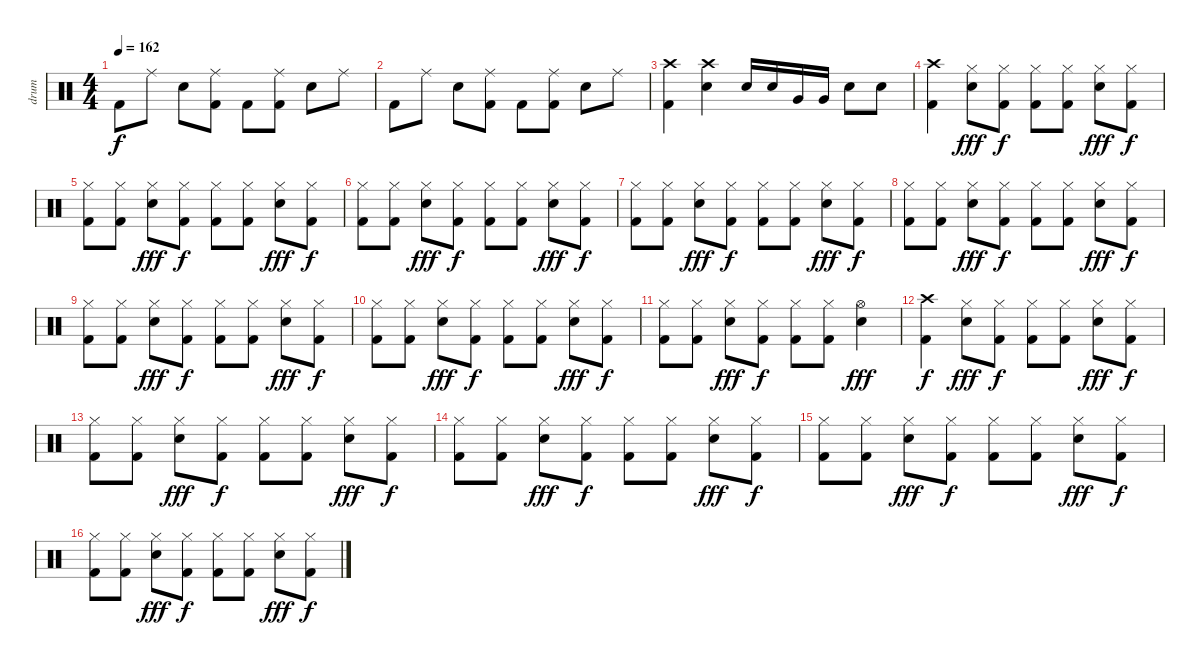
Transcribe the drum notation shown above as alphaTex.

\track ("drum" "drum") {instrument percussion}
\staff {score}
\articulation defaults
\ts (4 4)
\tempo 162
\clef neutral
\ks c "Kick (hit) 2".8{dy f} "Ride (middle)".8 "Electric Snare (hit)".8
("Ride (middle)" "Kick (hit) 2").8 "Kick (hit) 2".8 ("Ride (middle)" "Kick (hit) 2").8 "Electric Snare (hit)".8 "Ride (middle)".8 |
"Kick (hit) 2".8 "Ride (middle)".8 "Electric Snare (hit)".8 ("Ride (middle)" "Kick (hit) 2").8 "Kick (hit) 2".8 ("Ride (middle)" "Kick (hit) 2").8 "Electric Snare (hit)".8 "Ride (middle)".8 |
("Crash high (hit)" "Kick (hit) 2").4 ("Crash high (hit)" "Electric Snare (hit)").4 "Electric Snare (hit)".16 "Electric Snare (hit)".16 "Very Low Tom (hit)".16 "Very Low Tom (hit)".16 "Electric Snare (hit)".8 "Electric Snare (hit)".8 |
("Crash high (hit)" "Kick (hit) 2").4 ("Hi-Hat (closed)" "Electric Snare (hit)").8{dy fff} ("Hi-Hat (closed)" "Kick (hit) 2").8{dy f} ("Hi-Hat (closed)" "Kick (hit) 2").8 ("Hi-Hat (closed)" "Kick (hit) 2").8 ("Hi-Hat (closed)" "Electric Snare (hit)").8{dy fff} ("Hi-Hat (closed)" "Kick (hit) 2").8{dy f} |
("Hi-Hat (closed)" "Kick (hit) 2").8 ("Hi-Hat (closed)" "Kick (hit) 2").8 ("Hi-Hat (closed)" "Electric Snare (hit)").8{dy fff} ("Hi-Hat (closed)" "Kick (hit) 2").8{dy f} ("Hi-Hat (closed)" "Kick (hit) 2").8 ("Hi-Hat (closed)" "Kick (hit) 2").8 ("Hi-Hat (closed)" "Electric Snare (hit)").8{dy fff} ("Hi-Hat (closed)" "Kick (hit) 2").8{dy f} |
("Hi-Hat (closed)" "Kick (hit) 2").8 ("Hi-Hat (closed)" "Kick (hit) 2").8 ("Hi-Hat (closed)" "Electric Snare (hit)").8{dy fff} ("Hi-Hat (closed)" "Kick (hit) 2").8{dy f} ("Hi-Hat (closed)" "Kick (hit) 2").8 ("Hi-Hat (closed)" "Kick (hit) 2").8 ("Hi-Hat (closed)" "Electric Snare (hit)").8{dy fff} ("Hi-Hat (closed)" "Kick (hit) 2").8{dy f} |
("Hi-Hat (closed)" "Kick (hit) 2").8 ("Hi-Hat (closed)" "Kick (hit) 2").8 ("Hi-Hat (closed)" "Electric Snare (hit)").8{dy fff} ("Hi-Hat (closed)" "Kick (hit) 2").8{dy f} ("Hi-Hat (closed)" "Kick (hit) 2").8 ("Hi-Hat (closed)" "Kick (hit) 2").8 ("Hi-Hat (closed)" "Electric Snare (hit)").8{dy fff} ("Hi-Hat (closed)" "Kick (hit) 2").8{dy f} |
("Hi-Hat (closed)" "Kick (hit) 2").8 ("Hi-Hat (closed)" "Kick (hit) 2").8 ("Hi-Hat (closed)" "Electric Snare (hit)").8{dy fff} ("Hi-Hat (closed)" "Kick (hit) 2").8{dy f} ("Hi-Hat (closed)" "Kick (hit) 2").8 ("Hi-Hat (closed)" "Kick (hit) 2").8 ("Hi-Hat (closed)" "Electric Snare (hit)").8{dy fff} ("Hi-Hat (closed)" "Kick (hit) 2").8{dy f} |
("Hi-Hat (closed)" "Kick (hit) 2").8 ("Hi-Hat (closed)" "Kick (hit) 2").8 ("Hi-Hat (closed)" "Electric Snare (hit)").8{dy fff} ("Hi-Hat (closed)" "Kick (hit) 2").8{dy f} ("Hi-Hat (closed)" "Kick (hit) 2").8 ("Hi-Hat (closed)" "Kick (hit) 2").8 ("Hi-Hat (closed)" "Electric Snare (hit)").8{dy fff} ("Hi-Hat (closed)" "Kick (hit) 2").8{dy f} |
("Hi-Hat (closed)" "Kick (hit) 2").8 ("Hi-Hat (closed)" "Kick (hit) 2").8 ("Hi-Hat (closed)" "Electric Snare (hit)").8{dy fff} ("Hi-Hat (closed)" "Kick (hit) 2").8{dy f} ("Hi-Hat (closed)" "Kick (hit) 2").8 ("Hi-Hat (closed)" "Kick (hit) 2").8 ("Hi-Hat (closed)" "Electric Snare (hit)").8{dy fff} ("Hi-Hat (closed)" "Kick (hit) 2").8{dy f} |
("Hi-Hat (closed)" "Kick (hit) 2").8 ("Hi-Hat (closed)" "Kick (hit) 2").8 ("Hi-Hat (closed)" "Electric Snare (hit)").8{dy fff} ("Hi-Hat (closed)" "Kick (hit) 2").8{dy f} ("Hi-Hat (closed)" "Kick (hit) 2").8 ("Hi-Hat (closed)" "Kick (hit) 2").8 ("Hi-Hat (open)" "Electric Snare (hit)").4{dy fff} |
("Crash high (hit)" "Kick (hit) 2").4{dy f} ("Hi-Hat (closed)" "Electric Snare (hit)").8{dy fff} ("Hi-Hat (closed)" "Kick (hit) 2").8{dy f} ("Hi-Hat (closed)" "Kick (hit) 2").8 ("Hi-Hat (closed)" "Kick (hit) 2").8 ("Hi-Hat (closed)" "Electric Snare (hit)").8{dy fff} ("Hi-Hat (closed)" "Kick (hit) 2").8{dy f} |
("Hi-Hat (closed)" "Kick (hit) 2").8 ("Hi-Hat (closed)" "Kick (hit) 2").8 ("Hi-Hat (closed)" "Electric Snare (hit)").8{dy fff} ("Hi-Hat (closed)" "Kick (hit) 2").8{dy f} ("Hi-Hat (closed)" "Kick (hit) 2").8 ("Hi-Hat (closed)" "Kick (hit) 2").8 ("Hi-Hat (closed)" "Electric Snare (hit)").8{dy fff} ("Hi-Hat (closed)" "Kick (hit) 2").8{dy f} |
("Hi-Hat (closed)" "Kick (hit) 2").8 ("Hi-Hat (closed)" "Kick (hit) 2").8 ("Hi-Hat (closed)" "Electric Snare (hit)").8{dy fff} ("Hi-Hat (closed)" "Kick (hit) 2").8{dy f} ("Hi-Hat (closed)" "Kick (hit) 2").8 ("Hi-Hat (closed)" "Kick (hit) 2").8 ("Hi-Hat (closed)" "Electric Snare (hit)").8{dy fff} ("Hi-Hat (closed)" "Kick (hit) 2").8{dy f} |
("Hi-Hat (closed)" "Kick (hit) 2").8 ("Hi-Hat (closed)" "Kick (hit) 2").8 ("Hi-Hat (closed)" "Electric Snare (hit)").8{dy fff} ("Hi-Hat (closed)" "Kick (hit) 2").8{dy f} ("Hi-Hat (closed)" "Kick (hit) 2").8 ("Hi-Hat (closed)" "Kick (hit) 2").8 ("Hi-Hat (closed)" "Electric Snare (hit)").8{dy fff} ("Hi-Hat (closed)" "Kick (hit) 2").8{dy f} |
("Hi-Hat (closed)" "Kick (hit) 2").8 ("Hi-Hat (closed)" "Kick (hit) 2").8 ("Hi-Hat (closed)" "Electric Snare (hit)").8{dy fff} ("Hi-Hat (closed)" "Kick (hit) 2").8{dy f} ("Hi-Hat (closed)" "Kick (hit) 2").8 ("Hi-Hat (closed)" "Kick (hit) 2").8 ("Hi-Hat (closed)" "Electric Snare (hit)").8{dy fff} ("Hi-Hat (closed)" "Kick (hit) 2").8{dy f}
